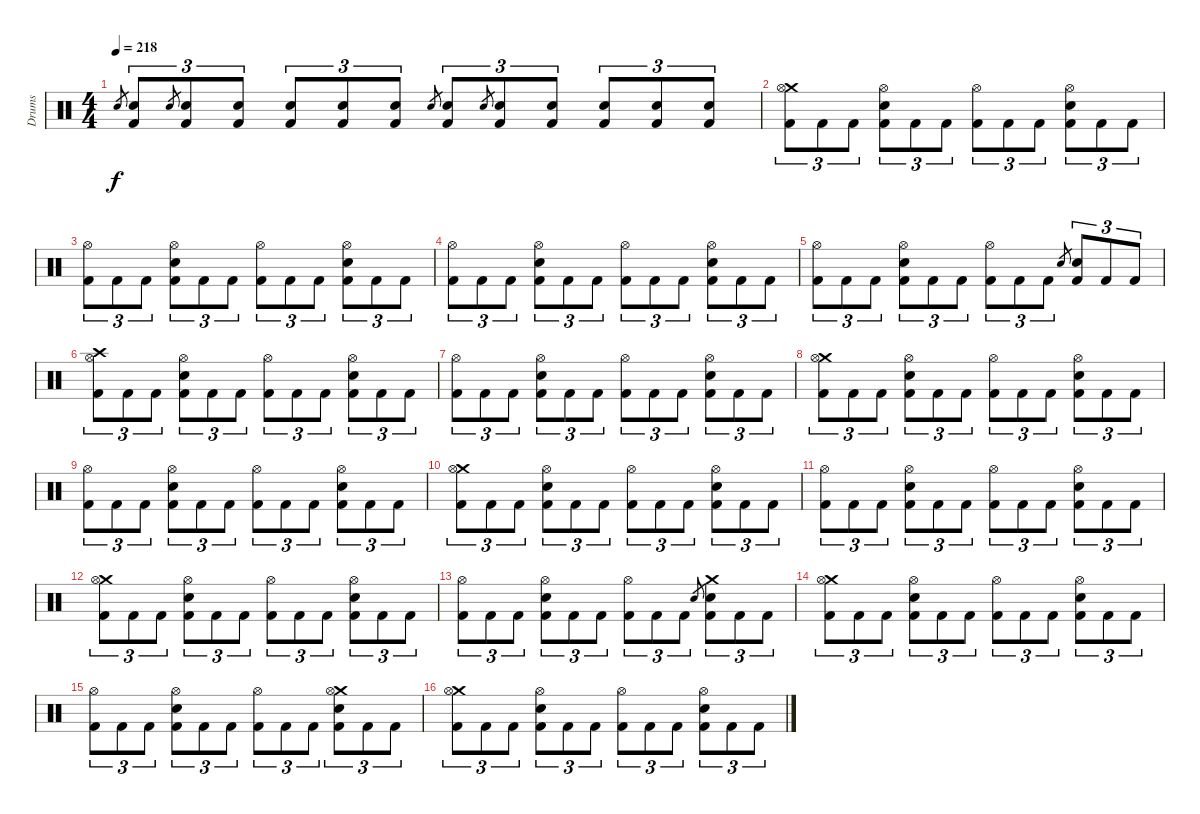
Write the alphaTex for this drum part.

\track ("Drums" "Drums") {instrument percussion}
\staff {score}
\articulation defaults
\ts (4 4)
\tempo 218
\clef neutral
\ks c "Electric Snare (hit)".8{gr dy f}
("Electric Snare (hit)" "Kick (hit) 2").8{tu (3 2)} "Electric Snare (hit)".8{gr} ("Electric Snare (hit)" "Kick (hit) 2").8{tu (3 2)} ("Electric Snare (hit)" "Kick (hit) 2").8{tu (3 2)} ("Electric Snare (hit)" "Kick (hit) 2").8{tu (3 2)} ("Electric Snare (hit)" "Kick (hit) 2").8{tu (3 2)} ("Electric Snare (hit)" "Kick (hit) 2").8{tu (3 2)} "Electric Snare (hit)".8{gr} ("Electric Snare (hit)" "Kick (hit) 2").8{tu (3 2)} "Electric Snare (hit)".8{gr} ("Electric Snare (hit)" "Kick (hit) 2").8{tu (3 2)} ("Electric Snare (hit)" "Kick (hit) 2").8{tu (3 2)} ("Electric Snare (hit)" "Kick (hit) 2").8{tu (3 2)} ("Electric Snare (hit)" "Kick (hit) 2").8{tu (3 2)} ("Electric Snare (hit)" "Kick (hit) 2").8{tu (3 2)} |
("Crash medium (hit)" "Hi-Hat (open)" "Kick (hit) 2").8{tu (3 2)} "Kick (hit) 2".8{tu (3 2)} "Kick (hit) 2".8{tu (3 2)} ("Hi-Hat (open)" "Electric Snare (hit)" "Kick (hit) 2").8{tu (3 2)} "Kick (hit) 2".8{tu (3 2)} "Kick (hit) 2".8{tu (3 2)} ("Hi-Hat (open)" "Kick (hit) 2").8{tu (3 2)} "Kick (hit) 2".8{tu (3 2)} "Kick (hit) 2".8{tu (3 2)} ("Hi-Hat (open)" "Electric Snare (hit)" "Kick (hit) 2").8{tu (3 2)} "Kick (hit) 2".8{tu (3 2)} "Kick (hit) 2".8{tu (3 2)} |
("Hi-Hat (open)" "Kick (hit) 2").8{tu (3 2)} "Kick (hit) 2".8{tu (3 2)} "Kick (hit) 2".8{tu (3 2)} ("Hi-Hat (open)" "Electric Snare (hit)" "Kick (hit) 2").8{tu (3 2)} "Kick (hit) 2".8{tu (3 2)} "Kick (hit) 2".8{tu (3 2)} ("Hi-Hat (open)" "Kick (hit) 2").8{tu (3 2)} "Kick (hit) 2".8{tu (3 2)} "Kick (hit) 2".8{tu (3 2)} ("Hi-Hat (open)" "Electric Snare (hit)" "Kick (hit) 2").8{tu (3 2)} "Kick (hit) 2".8{tu (3 2)} "Kick (hit) 2".8{tu (3 2)} |
("Hi-Hat (open)" "Kick (hit) 2").8{tu (3 2)} "Kick (hit) 2".8{tu (3 2)} "Kick (hit) 2".8{tu (3 2)} ("Hi-Hat (open)" "Electric Snare (hit)" "Kick (hit) 2").8{tu (3 2)} "Kick (hit) 2".8{tu (3 2)} "Kick (hit) 2".8{tu (3 2)} ("Hi-Hat (open)" "Kick (hit) 2").8{tu (3 2)} "Kick (hit) 2".8{tu (3 2)} "Kick (hit) 2".8{tu (3 2)} ("Hi-Hat (open)" "Electric Snare (hit)" "Kick (hit) 2").8{tu (3 2)} "Kick (hit) 2".8{tu (3 2)} "Kick (hit) 2".8{tu (3 2)} |
("Hi-Hat (open)" "Kick (hit) 2").8{tu (3 2)} "Kick (hit) 2".8{tu (3 2)} "Kick (hit) 2".8{tu (3 2)} ("Hi-Hat (open)" "Electric Snare (hit)" "Kick (hit) 2").8{tu (3 2)} "Kick (hit) 2".8{tu (3 2)} "Kick (hit) 2".8{tu (3 2)} ("Hi-Hat (open)" "Kick (hit) 2").8{tu (3 2)} "Kick (hit) 2".8{tu (3 2)} "Kick (hit) 2".8{tu (3 2)} "Electric Snare (hit)".8{gr} ("Electric Snare (hit)" "Kick (hit) 2").8{tu (3 2)} "Kick (hit) 2".8{tu (3 2)} "Kick (hit) 2".8{tu (3 2)} |
("Crash high (hit)" "Hi-Hat (open)" "Kick (hit) 2").8{tu (3 2)} "Kick (hit) 2".8{tu (3 2)} "Kick (hit) 2".8{tu (3 2)} ("Hi-Hat (open)" "Electric Snare (hit)" "Kick (hit) 2").8{tu (3 2)} "Kick (hit) 2".8{tu (3 2)} "Kick (hit) 2".8{tu (3 2)} ("Hi-Hat (open)" "Kick (hit) 2").8{tu (3 2)} "Kick (hit) 2".8{tu (3 2)} "Kick (hit) 2".8{tu (3 2)} ("Hi-Hat (open)" "Electric Snare (hit)" "Kick (hit) 2").8{tu (3 2)} "Kick (hit) 2".8{tu (3 2)} "Kick (hit) 2".8{tu (3 2)} |
("Hi-Hat (open)" "Kick (hit) 2").8{tu (3 2)} "Kick (hit) 2".8{tu (3 2)} "Kick (hit) 2".8{tu (3 2)} ("Hi-Hat (open)" "Electric Snare (hit)" "Kick (hit) 2").8{tu (3 2)} "Kick (hit) 2".8{tu (3 2)} "Kick (hit) 2".8{tu (3 2)} ("Hi-Hat (open)" "Kick (hit) 2").8{tu (3 2)} "Kick (hit) 2".8{tu (3 2)} "Kick (hit) 2".8{tu (3 2)} ("Hi-Hat (open)" "Electric Snare (hit)" "Kick (hit) 2").8{tu (3 2)} "Kick (hit) 2".8{tu (3 2)} "Kick (hit) 2".8{tu (3 2)} |
("Crash medium (hit)" "Hi-Hat (open)" "Kick (hit) 2").8{tu (3 2)} "Kick (hit) 2".8{tu (3 2)} "Kick (hit) 2".8{tu (3 2)} ("Hi-Hat (open)" "Electric Snare (hit)" "Kick (hit) 2").8{tu (3 2)} "Kick (hit) 2".8{tu (3 2)} "Kick (hit) 2".8{tu (3 2)} ("Hi-Hat (open)" "Kick (hit) 2").8{tu (3 2)} "Kick (hit) 2".8{tu (3 2)} "Kick (hit) 2".8{tu (3 2)} ("Hi-Hat (open)" "Electric Snare (hit)" "Kick (hit) 2").8{tu (3 2)} "Kick (hit) 2".8{tu (3 2)} "Kick (hit) 2".8{tu (3 2)} |
("Hi-Hat (open)" "Kick (hit) 2").8{tu (3 2)} "Kick (hit) 2".8{tu (3 2)} "Kick (hit) 2".8{tu (3 2)} ("Hi-Hat (open)" "Electric Snare (hit)" "Kick (hit) 2").8{tu (3 2)} "Kick (hit) 2".8{tu (3 2)} "Kick (hit) 2".8{tu (3 2)} ("Hi-Hat (open)" "Kick (hit) 2").8{tu (3 2)} "Kick (hit) 2".8{tu (3 2)} "Kick (hit) 2".8{tu (3 2)} ("Hi-Hat (open)" "Electric Snare (hit)" "Kick (hit) 2").8{tu (3 2)} "Kick (hit) 2".8{tu (3 2)} "Kick (hit) 2".8{tu (3 2)} |
("Crash medium (hit)" "Hi-Hat (open)" "Kick (hit) 2").8{tu (3 2)} "Kick (hit) 2".8{tu (3 2)} "Kick (hit) 2".8{tu (3 2)} ("Hi-Hat (open)" "Electric Snare (hit)" "Kick (hit) 2").8{tu (3 2)} "Kick (hit) 2".8{tu (3 2)} "Kick (hit) 2".8{tu (3 2)} ("Hi-Hat (open)" "Kick (hit) 2").8{tu (3 2)} "Kick (hit) 2".8{tu (3 2)} "Kick (hit) 2".8{tu (3 2)} ("Hi-Hat (open)" "Electric Snare (hit)" "Kick (hit) 2").8{tu (3 2)} "Kick (hit) 2".8{tu (3 2)} "Kick (hit) 2".8{tu (3 2)} |
("Hi-Hat (open)" "Kick (hit) 2").8{tu (3 2)} "Kick (hit) 2".8{tu (3 2)} "Kick (hit) 2".8{tu (3 2)} ("Hi-Hat (open)" "Electric Snare (hit)" "Kick (hit) 2").8{tu (3 2)} "Kick (hit) 2".8{tu (3 2)} "Kick (hit) 2".8{tu (3 2)} ("Hi-Hat (open)" "Kick (hit) 2").8{tu (3 2)} "Kick (hit) 2".8{tu (3 2)} "Kick (hit) 2".8{tu (3 2)} ("Hi-Hat (open)" "Electric Snare (hit)" "Kick (hit) 2").8{tu (3 2)} "Kick (hit) 2".8{tu (3 2)} "Kick (hit) 2".8{tu (3 2)} |
("Crash medium (hit)" "Hi-Hat (open)" "Kick (hit) 2").8{tu (3 2)} "Kick (hit) 2".8{tu (3 2)} "Kick (hit) 2".8{tu (3 2)} ("Hi-Hat (open)" "Electric Snare (hit)" "Kick (hit) 2").8{tu (3 2)} "Kick (hit) 2".8{tu (3 2)} "Kick (hit) 2".8{tu (3 2)} ("Hi-Hat (open)" "Kick (hit) 2").8{tu (3 2)} "Kick (hit) 2".8{tu (3 2)} "Kick (hit) 2".8{tu (3 2)} ("Hi-Hat (open)" "Electric Snare (hit)" "Kick (hit) 2").8{tu (3 2)} "Kick (hit) 2".8{tu (3 2)} "Kick (hit) 2".8{tu (3 2)} |
("Hi-Hat (open)" "Kick (hit) 2").8{tu (3 2)} "Kick (hit) 2".8{tu (3 2)} "Kick (hit) 2".8{tu (3 2)} ("Hi-Hat (open)" "Electric Snare (hit)" "Kick (hit) 2").8{tu (3 2)} "Kick (hit) 2".8{tu (3 2)} "Kick (hit) 2".8{tu (3 2)} ("Hi-Hat (open)" "Kick (hit) 2").8{tu (3 2)} "Kick (hit) 2".8{tu (3 2)} "Kick (hit) 2".8{tu (3 2)} "Electric Snare (hit)".8{gr} ("Crash medium (hit)" "Electric Snare (hit)" "Kick (hit) 2").8{tu (3 2)} "Kick (hit) 2".8{tu (3 2)} "Kick (hit) 2".8{tu (3 2)} |
("Crash medium (hit)" "Hi-Hat (open)" "Kick (hit) 2").8{tu (3 2)} "Kick (hit) 2".8{tu (3 2)} "Kick (hit) 2".8{tu (3 2)} ("Hi-Hat (open)" "Electric Snare (hit)" "Kick (hit) 2").8{tu (3 2)} "Kick (hit) 2".8{tu (3 2)} "Kick (hit) 2".8{tu (3 2)} ("Hi-Hat (open)" "Kick (hit) 2").8{tu (3 2)} "Kick (hit) 2".8{tu (3 2)} "Kick (hit) 2".8{tu (3 2)} ("Hi-Hat (open)" "Electric Snare (hit)" "Kick (hit) 2").8{tu (3 2)} "Kick (hit) 2".8{tu (3 2)} "Kick (hit) 2".8{tu (3 2)} |
("Hi-Hat (open)" "Kick (hit) 2").8{tu (3 2)} "Kick (hit) 2".8{tu (3 2)} "Kick (hit) 2".8{tu (3 2)} ("Hi-Hat (open)" "Electric Snare (hit)" "Kick (hit) 2").8{tu (3 2)} "Kick (hit) 2".8{tu (3 2)} "Kick (hit) 2".8{tu (3 2)} ("Hi-Hat (open)" "Kick (hit) 2").8{tu (3 2)} "Kick (hit) 2".8{tu (3 2)} "Kick (hit) 2".8{tu (3 2)} ("Crash medium (hit)" "Hi-Hat (open)" "Electric Snare (hit)" "Kick (hit) 2").8{tu (3 2)} "Kick (hit) 2".8{tu (3 2)} "Kick (hit) 2".8{tu (3 2)} |
("Crash medium (hit)" "Hi-Hat (open)" "Kick (hit) 2").8{tu (3 2)} "Kick (hit) 2".8{tu (3 2)} "Kick (hit) 2".8{tu (3 2)} ("Hi-Hat (open)" "Electric Snare (hit)" "Kick (hit) 2").8{tu (3 2)} "Kick (hit) 2".8{tu (3 2)} "Kick (hit) 2".8{tu (3 2)} ("Hi-Hat (open)" "Kick (hit) 2").8{tu (3 2)} "Kick (hit) 2".8{tu (3 2)} "Kick (hit) 2".8{tu (3 2)} ("Hi-Hat (open)" "Electric Snare (hit)" "Kick (hit) 2").8{tu (3 2)} "Kick (hit) 2".8{tu (3 2)} "Kick (hit) 2".8{tu (3 2)}
